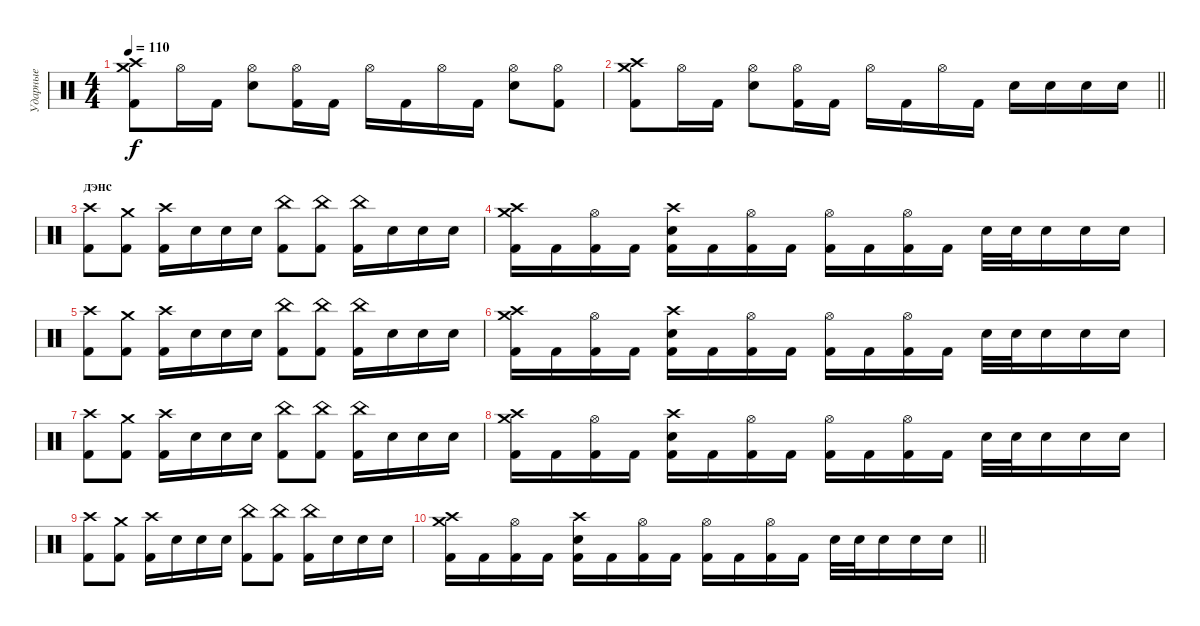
\track ("Ударные" "Ударные") {instrument percussion}
\staff
\articulation defaults
\ts (4 4)
\tempo 110
\clef neutral
\ks c
("Crash high (hit)" "Crash medium (hit)" "Kick (hit) 2").8{dy f} "Hi-Hat (open)".16 "Kick (hit) 2".16 ("Hi-Hat (open)" "Electric Snare (hit)").8 ("Hi-Hat (open)" "Kick (hit) 2").16 "Kick (hit) 2".16 "Hi-Hat (open)".16 "Kick (hit) 2".16 "Hi-Hat (open)".16 "Kick (hit) 2".16 ("Hi-Hat (open)" "Electric Snare (hit)").8 ("Hi-Hat (open)" "Kick (hit) 2").8 |
\barLineRight lightlight
("Crash high (hit)" "Crash medium (hit)" "Kick (hit) 2").8 "Hi-Hat (open)".16 "Kick (hit) 2".16 ("Hi-Hat (open)" "Electric Snare (hit)").8 ("Hi-Hat (open)" "Kick (hit) 2").16 "Kick (hit) 2".16 "Hi-Hat (open)".16 "Kick (hit) 2".16 "Hi-Hat (open)".16 "Kick (hit) 2".16 "Electric Snare (hit)".16 "Electric Snare (hit)".16 "Electric Snare (hit)".16 "Electric Snare (hit)".16 |
\section ("" "дэнс ")
("Crash high (hit)" "Kick (hit) 2").8 ("Crash medium (hit)" "Kick (hit) 2").8 ("Crash high (hit)" "Kick (hit) 2").16 "Electric Snare (hit)".16 "Electric Snare (hit)".16 "Electric Snare (hit)".16 ("China (hit)" "Kick (hit) 2").8 ("China (hit)" "Kick (hit) 2").8 ("China (hit)" "Kick (hit) 2").16 "Electric Snare (hit)".16 "Electric Snare (hit)".16 "Electric Snare (hit)".16 |
("Crash high (hit)" "Crash medium (hit)" "Kick (hit) 2").16 "Kick (hit) 2".16 ("Hi-Hat (open)" "Kick (hit) 2").16 "Kick (hit) 2".16 ("Crash high (hit)" "Electric Snare (hit)" "Kick (hit) 2").16 "Kick (hit) 2".16 ("Hi-Hat (open)" "Kick (hit) 2").16 "Kick (hit) 2".16 ("Hi-Hat (open)" "Kick (hit) 2").16 "Kick (hit) 2".16 ("Hi-Hat (open)" "Kick (hit) 2").16 "Kick (hit) 2".16 "Electric Snare (hit)".32 "Electric Snare (hit)".32 "Electric Snare (hit)".16 "Electric Snare (hit)".16 "Electric Snare (hit)".16 |
("Crash high (hit)" "Kick (hit) 2").8 ("Crash medium (hit)" "Kick (hit) 2").8 ("Crash high (hit)" "Kick (hit) 2").16 "Electric Snare (hit)".16 "Electric Snare (hit)".16 "Electric Snare (hit)".16 ("China (hit)" "Kick (hit) 2").8 ("China (hit)" "Kick (hit) 2").8 ("China (hit)" "Kick (hit) 2").16 "Electric Snare (hit)".16 "Electric Snare (hit)".16 "Electric Snare (hit)".16 |
("Crash high (hit)" "Crash medium (hit)" "Kick (hit) 2").16 "Kick (hit) 2".16 ("Hi-Hat (open)" "Kick (hit) 2").16 "Kick (hit) 2".16 ("Crash high (hit)" "Electric Snare (hit)" "Kick (hit) 2").16 "Kick (hit) 2".16 ("Hi-Hat (open)" "Kick (hit) 2").16 "Kick (hit) 2".16 ("Hi-Hat (open)" "Kick (hit) 2").16 "Kick (hit) 2".16 ("Hi-Hat (open)" "Kick (hit) 2").16 "Kick (hit) 2".16 "Electric Snare (hit)".32 "Electric Snare (hit)".32 "Electric Snare (hit)".16 "Electric Snare (hit)".16 "Electric Snare (hit)".16 |
("Crash high (hit)" "Kick (hit) 2").8 ("Crash medium (hit)" "Kick (hit) 2").8 ("Crash high (hit)" "Kick (hit) 2").16 "Electric Snare (hit)".16 "Electric Snare (hit)".16 "Electric Snare (hit)".16 ("China (hit)" "Kick (hit) 2").8 ("China (hit)" "Kick (hit) 2").8 ("China (hit)" "Kick (hit) 2").16 "Electric Snare (hit)".16 "Electric Snare (hit)".16 "Electric Snare (hit)".16 |
("Crash high (hit)" "Crash medium (hit)" "Kick (hit) 2").16 "Kick (hit) 2".16 ("Hi-Hat (open)" "Kick (hit) 2").16 "Kick (hit) 2".16 ("Crash high (hit)" "Electric Snare (hit)" "Kick (hit) 2").16 "Kick (hit) 2".16 ("Hi-Hat (open)" "Kick (hit) 2").16 "Kick (hit) 2".16 ("Hi-Hat (open)" "Kick (hit) 2").16 "Kick (hit) 2".16 ("Hi-Hat (open)" "Kick (hit) 2").16 "Kick (hit) 2".16 "Electric Snare (hit)".32 "Electric Snare (hit)".32 "Electric Snare (hit)".16 "Electric Snare (hit)".16 "Electric Snare (hit)".16 |
("Crash high (hit)" "Kick (hit) 2").8 ("Crash medium (hit)" "Kick (hit) 2").8 ("Crash high (hit)" "Kick (hit) 2").16 "Electric Snare (hit)".16 "Electric Snare (hit)".16 "Electric Snare (hit)".16 ("China (hit)" "Kick (hit) 2").8 ("China (hit)" "Kick (hit) 2").8 ("China (hit)" "Kick (hit) 2").16 "Electric Snare (hit)".16 "Electric Snare (hit)".16 "Electric Snare (hit)".16 |
\barLineRight lightlight
("Crash high (hit)" "Crash medium (hit)" "Kick (hit) 2").16 "Kick (hit) 2".16 ("Hi-Hat (open)" "Kick (hit) 2").16 "Kick (hit) 2".16 ("Crash high (hit)" "Electric Snare (hit)" "Kick (hit) 2").16 "Kick (hit) 2".16 ("Hi-Hat (open)" "Kick (hit) 2").16 "Kick (hit) 2".16 ("Hi-Hat (open)" "Kick (hit) 2").16 "Kick (hit) 2".16 ("Hi-Hat (open)" "Kick (hit) 2").16 "Kick (hit) 2".16 "Electric Snare (hit)".32 "Electric Snare (hit)".32 "Electric Snare (hit)".16 "Electric Snare (hit)".16 "Electric Snare (hit)".16
